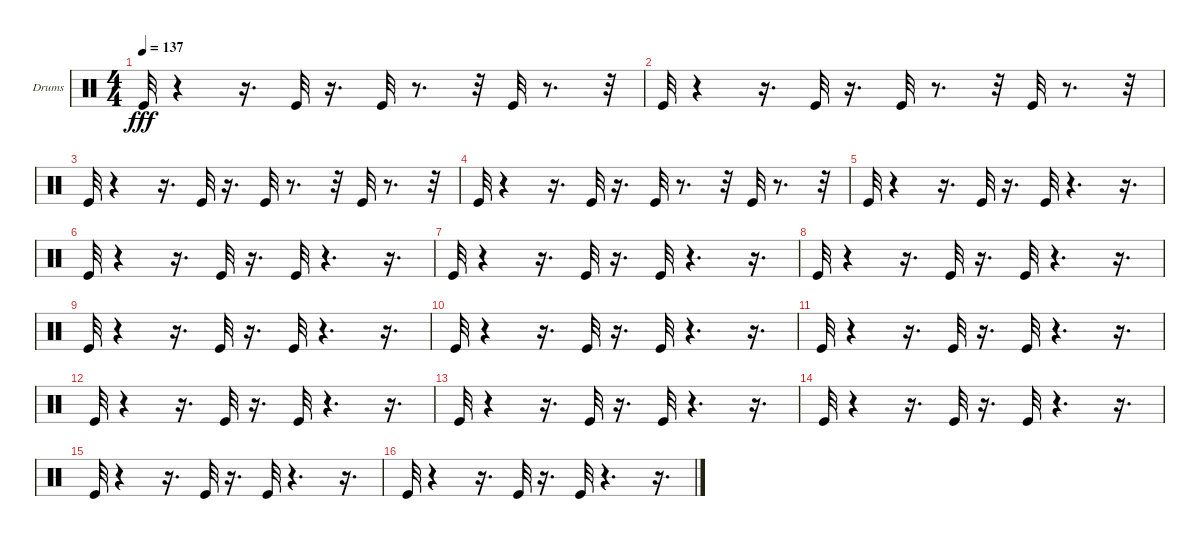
\bracketExtendMode groupsimilarinstruments
\firstSystemTrackNameOrientation horizontal
\otherSystemsTrackNameOrientation horizontal
\track ("Drumkit" "Drums") {instrument percussion}
\staff {score}
\articulation defaults
\ts (4 4)
\tempo 137
\clef neutral
\ks c "Kick (hit)".32{dy fff}
r.4 r.16{d} "Kick (hit)".32 r.16{d} "Kick (hit)".32 r.8{d} r.32 "Kick (hit)".32 r.8{d} r.32 |
"Kick (hit)".32 r.4 r.16{d} "Kick (hit)".32 r.16{d} "Kick (hit)".32 r.8{d} r.32 "Kick (hit)".32 r.8{d} r.32 |
"Kick (hit)".32 r.4 r.16{d} "Kick (hit)".32 r.16{d} "Kick (hit)".32 r.8{d} r.32 "Kick (hit)".32 r.8{d} r.32 |
"Kick (hit)".32 r.4 r.16{d} "Kick (hit)".32 r.16{d} "Kick (hit)".32 r.8{d} r.32 "Kick (hit)".32 r.8{d} r.32 |
"Kick (hit)".32 r.4 r.16{d} "Kick (hit)".32 r.16{d} "Kick (hit)".32 r.4{d} r.16{d} |
"Kick (hit)".32 r.4 r.16{d} "Kick (hit)".32 r.16{d} "Kick (hit)".32 r.4{d} r.16{d} |
"Kick (hit)".32 r.4 r.16{d} "Kick (hit)".32 r.16{d} "Kick (hit)".32 r.4{d} r.16{d} |
"Kick (hit)".32 r.4 r.16{d} "Kick (hit)".32 r.16{d} "Kick (hit)".32 r.4{d} r.16{d} |
"Kick (hit)".32 r.4 r.16{d} "Kick (hit)".32 r.16{d} "Kick (hit)".32 r.4{d} r.16{d} |
"Kick (hit)".32 r.4 r.16{d} "Kick (hit)".32 r.16{d} "Kick (hit)".32 r.4{d} r.16{d} |
"Kick (hit)".32 r.4 r.16{d} "Kick (hit)".32 r.16{d} "Kick (hit)".32 r.4{d} r.16{d} |
"Kick (hit)".32 r.4 r.16{d} "Kick (hit)".32 r.16{d} "Kick (hit)".32 r.4{d} r.16{d} |
"Kick (hit)".32 r.4 r.16{d} "Kick (hit)".32 r.16{d} "Kick (hit)".32 r.4{d} r.16{d} |
"Kick (hit)".32 r.4 r.16{d} "Kick (hit)".32 r.16{d} "Kick (hit)".32 r.4{d} r.16{d} |
"Kick (hit)".32 r.4 r.16{d} "Kick (hit)".32 r.16{d} "Kick (hit)".32 r.4{d} r.16{d} |
"Kick (hit)".32 r.4 r.16{d} "Kick (hit)".32 r.16{d} "Kick (hit)".32 r.4{d} r.16{d}
